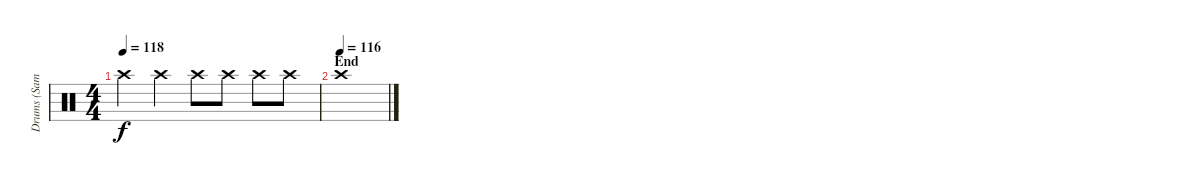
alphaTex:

\track ("Drums (Sam)" "Drums (Sam") {instrument percussion}
\staff {score}
\articulation defaults
\ts (4 4)
\tempo 118
\clef neutral
\ks c "Crash high (hit)".4{dy f} "Crash high (hit)".4 "Crash high (hit)".8{volume 5} "Crash high (hit)".8{volume 8} "Crash high (hit)".8{volume 11} "Crash high (hit)".8{volume 14}
|
\section ("" "End")
\tempo (116)
"Crash high (hit)".1{volume 16}
